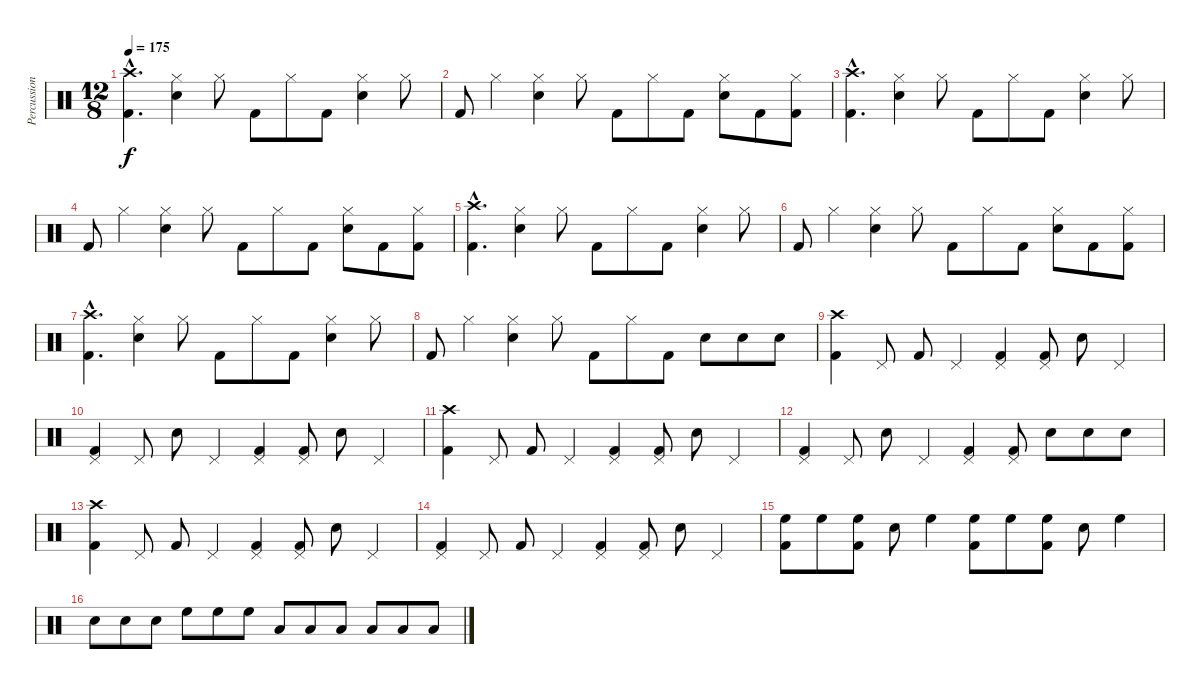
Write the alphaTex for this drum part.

\track ("Percussion" "Percussion") {instrument percussion}
\staff {score}
\articulation defaults
\ts (12 8)
\tempo 175
\clef neutral
\ks c
("Kick (hit) 2"{hac} "Crash high (hit)"{hac}).4{d dy f} ("Snare (hit) 2" "Hi-Hat (closed)").4 "Hi-Hat (closed)".8 "Kick (hit) 2".8 "Hi-Hat (closed)".8 "Kick (hit) 2".8 ("Snare (hit) 2" "Hi-Hat (closed)").4 "Hi-Hat (closed)".8 |
"Kick (hit) 2".8 "Hi-Hat (closed)".4 ("Snare (hit) 2" "Hi-Hat (closed)").4 "Hi-Hat (closed)".8 "Kick (hit) 2".8 "Hi-Hat (closed)".8 "Kick (hit) 2".8 ("Snare (hit) 2" "Hi-Hat (closed)").8 "Kick (hit) 2".8 ("Kick (hit) 2" "Hi-Hat (closed)").8 |
("Kick (hit) 2"{hac} "Crash high (hit)"{hac}).4{d} ("Snare (hit) 2" "Hi-Hat (closed)").4 "Hi-Hat (closed)".8 "Kick (hit) 2".8 "Hi-Hat (closed)".8 "Kick (hit) 2".8 ("Snare (hit) 2" "Hi-Hat (closed)").4 "Hi-Hat (closed)".8 |
"Kick (hit) 2".8 "Hi-Hat (closed)".4 ("Snare (hit) 2" "Hi-Hat (closed)").4 "Hi-Hat (closed)".8 "Kick (hit) 2".8 "Hi-Hat (closed)".8 "Kick (hit) 2".8 ("Snare (hit) 2" "Hi-Hat (closed)").8 "Kick (hit) 2".8 ("Kick (hit) 2" "Hi-Hat (closed)").8 |
("Kick (hit) 2"{hac} "Crash high (hit)"{hac}).4{d} ("Snare (hit) 2" "Hi-Hat (closed)").4 "Hi-Hat (closed)".8 "Kick (hit) 2".8 "Hi-Hat (closed)".8 "Kick (hit) 2".8 ("Snare (hit) 2" "Hi-Hat (closed)").4 "Hi-Hat (closed)".8 |
"Kick (hit) 2".8 "Hi-Hat (closed)".4 ("Snare (hit) 2" "Hi-Hat (closed)").4 "Hi-Hat (closed)".8 "Kick (hit) 2".8 "Hi-Hat (closed)".8 "Kick (hit) 2".8 ("Snare (hit) 2" "Hi-Hat (closed)").8 "Kick (hit) 2".8 ("Kick (hit) 2" "Hi-Hat (closed)").8 |
("Kick (hit) 2"{hac} "Crash high (hit)"{hac}).4{d} ("Snare (hit) 2" "Hi-Hat (closed)").4 "Hi-Hat (closed)".8 "Kick (hit) 2".8 "Hi-Hat (closed)".8 "Kick (hit) 2".8 ("Snare (hit) 2" "Hi-Hat (closed)").4 "Hi-Hat (closed)".8 |
"Kick (hit) 2".8 "Hi-Hat (closed)".4 ("Snare (hit) 2" "Hi-Hat (closed)").4 "Hi-Hat (closed)".8 "Kick (hit) 2".8 "Hi-Hat (closed)".8 "Kick (hit) 2".8 "Snare (hit) 2".8 "Snare (hit) 2".8 "Snare (hit) 2".8 |
("Kick (hit) 2" "Crash high (hit)").4 "Pedal Hi-Hat (hit)".8 "Kick (hit) 2".8 "Pedal Hi-Hat (hit)".4 ("Kick (hit) 2" "Pedal Hi-Hat (hit)").4 ("Kick (hit) 2" "Pedal Hi-Hat (hit)").8 "Snare (hit) 2".8 "Pedal Hi-Hat (hit)".4 |
("Kick (hit) 2" "Pedal Hi-Hat (hit)").4 "Pedal Hi-Hat (hit)".8 "Snare (hit) 2".8 "Pedal Hi-Hat (hit)".4 ("Kick (hit) 2" "Pedal Hi-Hat (hit)").4 ("Kick (hit) 2" "Pedal Hi-Hat (hit)").8 "Snare (hit) 2".8 "Pedal Hi-Hat (hit)".4 |
("Kick (hit) 2" "Crash high (hit)").4 "Pedal Hi-Hat (hit)".8 "Kick (hit) 2".8 "Pedal Hi-Hat (hit)".4 ("Kick (hit) 2" "Pedal Hi-Hat (hit)").4 ("Kick (hit) 2" "Pedal Hi-Hat (hit)").8 "Snare (hit) 2".8 "Pedal Hi-Hat (hit)".4 |
("Kick (hit) 2" "Pedal Hi-Hat (hit)").4 "Pedal Hi-Hat (hit)".8 "Snare (hit) 2".8 "Pedal Hi-Hat (hit)".4 ("Kick (hit) 2" "Pedal Hi-Hat (hit)").4 ("Kick (hit) 2" "Pedal Hi-Hat (hit)").8 "Snare (hit) 2".8 "Snare (hit) 2".8 "Snare (hit) 2".8 |
("Kick (hit) 2" "Crash high (hit)").4 "Pedal Hi-Hat (hit)".8 "Kick (hit) 2".8 "Pedal Hi-Hat (hit)".4 ("Kick (hit) 2" "Pedal Hi-Hat (hit)").4 ("Kick (hit) 2" "Pedal Hi-Hat (hit)").8 "Snare (hit) 2".8 "Pedal Hi-Hat (hit)".4 |
("Kick (hit) 2" "Pedal Hi-Hat (hit)").4 "Pedal Hi-Hat (hit)".8 "Kick (hit) 2".8 "Pedal Hi-Hat (hit)".4 ("Kick (hit) 2" "Pedal Hi-Hat (hit)").4 ("Kick (hit) 2" "Pedal Hi-Hat (hit)").8 "Snare (hit) 2".8 "Pedal Hi-Hat (hit)".4 |
("Kick (hit) 2" "High Floor Tom (hit)").8 "High Floor Tom (hit)".8 ("Kick (hit) 2" "High Floor Tom (hit)").8 "Snare (hit) 2".8 "High Floor Tom (hit)".4 ("Kick (hit) 2" "High Floor Tom (hit)").8 "High Floor Tom (hit)".8 ("Kick (hit) 2" "High Floor Tom (hit)").8 "Snare (hit) 2".8 "High Floor Tom (hit)".4 |
"Snare (hit) 2".8 "Snare (hit) 2".8 "Snare (hit) 2".8 "High Floor Tom (hit)".8 "High Floor Tom (hit)".8 "High Floor Tom (hit)".8 "Low Tom (hit)".8 "Low Tom (hit)".8 "Low Tom (hit)".8 "Low Floor Tom (hit)".8 "Low Floor Tom (hit)".8 "Low Floor Tom (hit)".8
